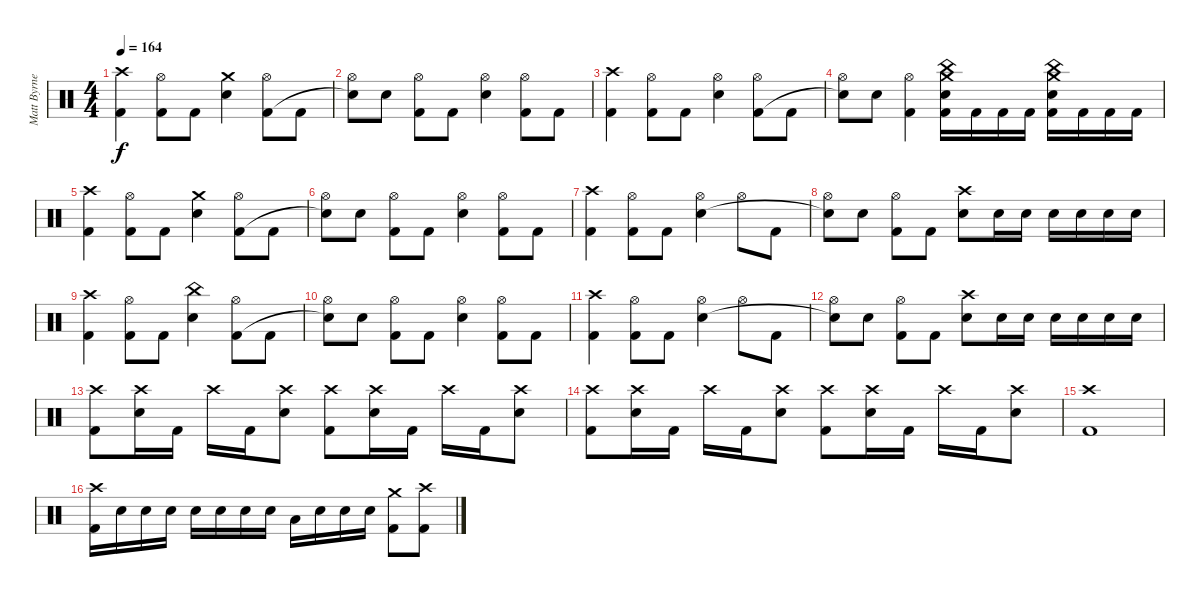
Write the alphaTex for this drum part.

\track ("Matt Byrne (Drums)" "Matt Byrne") {instrument percussion}
\staff {score}
\articulation defaults
\ts (4 4)
\tempo 164
\clef neutral
\ks c
("Crash high (hit)" "Kick (hit) 2").4{dy f} ("Hi-Hat (open)" "Kick (hit) 2").8 "Kick (hit) 2".8 ("Crash medium (hit)" "Electric Snare (hit)").4 ("Hi-Hat (open)" "Kick (hit) 2").8 "Kick (hit) 2".8 |
("Hi-Hat (open)" "Snare (hit)"{t}).8 "Electric Snare (hit)".8 ("Hi-Hat (open)" "Kick (hit) 2").8 "Kick (hit) 2".8 ("Hi-Hat (open)" "Electric Snare (hit)").4 ("Hi-Hat (open)" "Kick (hit) 2").8 "Kick (hit) 2".8 |
("Crash high (hit)" "Kick (hit) 2").4 ("Hi-Hat (open)" "Kick (hit) 2").8 "Kick (hit) 2".8 ("Hi-Hat (open)" "Electric Snare (hit)").4 ("Hi-Hat (open)" "Kick (hit) 2").8 "Kick (hit) 2".8 |
("Hi-Hat (open)" "Snare (hit)"{t}).8 "Electric Snare (hit)".8 ("Hi-Hat (open)" "Kick (hit) 2").4 ("Crash medium (hit)" "China (hit)" "Electric Snare (hit)" "Kick (hit) 2").16 "Kick (hit) 2".16 "Kick (hit) 2".16 "Kick (hit) 2".16 ("Crash medium (hit)" "China (hit)" "Electric Snare (hit)" "Kick (hit) 2").16 "Kick (hit) 2".16 "Kick (hit) 2".16 "Kick (hit) 2".16 |
("Crash high (hit)" "Kick (hit) 2").4 ("Hi-Hat (open)" "Kick (hit) 2").8 "Kick (hit) 2".8 ("Crash medium (hit)" "Electric Snare (hit)").4 ("Hi-Hat (open)" "Kick (hit) 2").8 "Kick (hit) 2".8 |
("Hi-Hat (open)" "Snare (hit)"{t}).8 "Electric Snare (hit)".8 ("Hi-Hat (open)" "Kick (hit) 2").8 "Kick (hit) 2".8 ("Hi-Hat (open)" "Electric Snare (hit)").4 ("Hi-Hat (open)" "Kick (hit) 2").8 "Kick (hit) 2".8 |
("Crash high (hit)" "Kick (hit) 2").4 ("Hi-Hat (open)" "Kick (hit) 2").8 "Kick (hit) 2".8 ("Hi-Hat (open)" "Electric Snare (hit)").4 "Hi-Hat (open)".8 "Kick (hit) 2".8 |
("Hi-Hat (open)" "Snare (hit)"{t}).8 "Electric Snare (hit)".8 ("Hi-Hat (open)" "Kick (hit) 2").8 "Kick (hit) 2".8 ("Crash high (hit)" "Electric Snare (hit)").8 "Electric Snare (hit)".16 "Electric Snare (hit)".16 "Electric Snare (hit)".16 "Electric Snare (hit)".16 "Electric Snare (hit)".16 "Electric Snare (hit)".16 |
("Crash high (hit)" "Kick (hit) 2").4 ("Hi-Hat (open)" "Kick (hit) 2").8 "Kick (hit) 2".8 ("China (hit)" "Electric Snare (hit)").4 ("Hi-Hat (open)" "Kick (hit) 2").8 "Kick (hit) 2".8 |
("Hi-Hat (open)" "Snare (hit)"{t}).8 "Electric Snare (hit)".8 ("Hi-Hat (open)" "Kick (hit) 2").8 "Kick (hit) 2".8 ("Hi-Hat (open)" "Electric Snare (hit)").4 ("Hi-Hat (open)" "Kick (hit) 2").8 "Kick (hit) 2".8 |
("Crash high (hit)" "Kick (hit) 2").4 ("Hi-Hat (open)" "Kick (hit) 2").8 "Kick (hit) 2".8 ("Hi-Hat (open)" "Electric Snare (hit)").4 "Hi-Hat (open)".8 "Kick (hit) 2".8 |
("Hi-Hat (open)" "Snare (hit)"{t}).8 "Electric Snare (hit)".8 ("Hi-Hat (open)" "Kick (hit) 2").8 "Kick (hit) 2".8 ("Crash high (hit)" "Electric Snare (hit)").8 "Electric Snare (hit)".16 "Electric Snare (hit)".16 "Electric Snare (hit)".16 "Electric Snare (hit)".16 "Electric Snare (hit)".16 "Electric Snare (hit)".16 |
("Crash high (hit)" "Kick (hit) 2").8 ("Crash high (hit)" "Snare (hit) 2").16 "Kick (hit) 2".16 "Crash high (hit)".16 "Kick (hit) 2".16 ("Crash high (hit)" "Snare (hit) 2").8 ("Crash high (hit)" "Kick (hit) 2").8 ("Crash high (hit)" "Snare (hit) 2").16 "Kick (hit) 2".16 "Crash high (hit)".16 "Kick (hit) 2".16 ("Crash high (hit)" "Snare (hit) 2").8 |
("Crash high (hit)" "Kick (hit) 2").8 ("Crash high (hit)" "Snare (hit) 2").16 "Kick (hit) 2".16 "Crash high (hit)".16 "Kick (hit) 2".16 ("Crash high (hit)" "Snare (hit) 2").8 ("Crash high (hit)" "Kick (hit) 2").8 ("Crash high (hit)" "Snare (hit) 2").16 "Kick (hit) 2".16 "Crash high (hit)".16 "Kick (hit) 2".16 ("Crash high (hit)" "Snare (hit) 2").8 |
("Crash high (hit)" "Kick (hit) 2").1 |
("Crash high (hit)" "Kick (hit) 2").16 "Snare (hit) 2".16 "Snare (hit) 2".16 "Snare (hit) 2".16 "Snare (hit) 2".16 "Snare (hit) 2".16 "Snare (hit) 2".16 "Snare (hit) 2".16 "Low Tom (hit)".16 "Snare (hit) 2".16 "Snare (hit) 2".16 "Snare (hit) 2".16 ("Crash medium (hit)" "Kick (hit) 2").8 ("Crash high (hit)" "Kick (hit) 2").8
